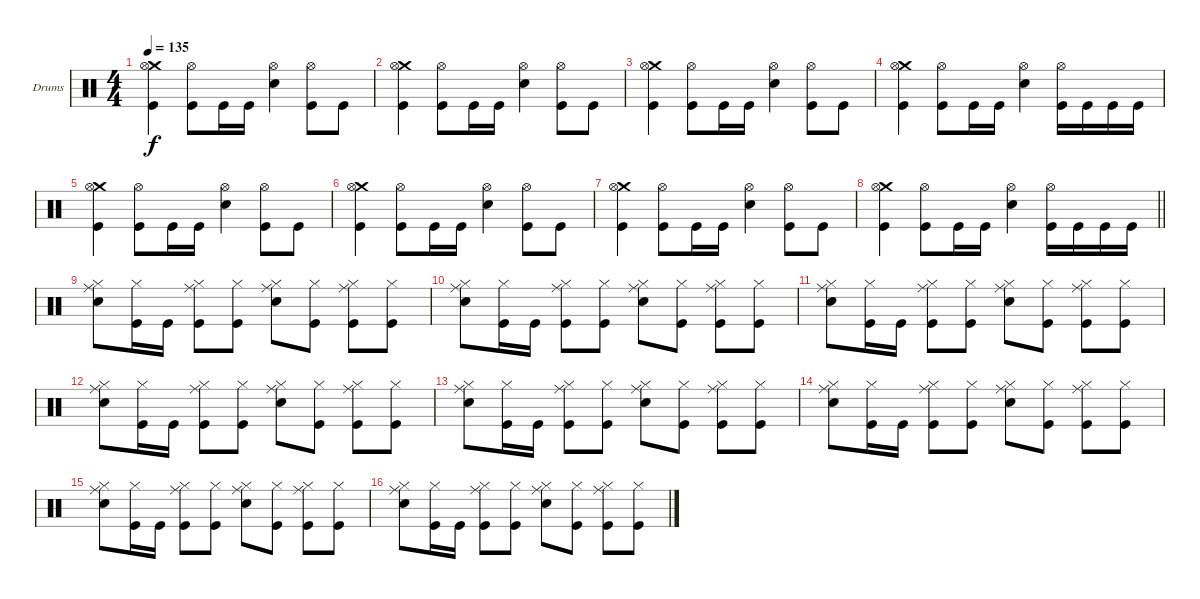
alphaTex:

\defaultSystemsLayout 4
\bracketExtendMode groupsimilarinstruments
\firstSystemTrackNameOrientation horizontal
\otherSystemsTrackNameOrientation horizontal
\track ("Drumkit" "Drums") {instrument percussion}
\staff {score}
\articulation defaults
\ts (4 4)
\tempo 135
\clef neutral
\ks c
("Kick (hit)" "Crash medium (hit)" "Hi-Hat (open)").4{dy f} ("Kick (hit)" "Hi-Hat (open)").8 "Kick (hit)".16 "Kick (hit)".16 ("Snare (hit) 2" "Hi-Hat (open)").4 ("Kick (hit)" "Hi-Hat (open)").8 "Kick (hit)".8 |
("Kick (hit)" "Crash medium (hit)" "Hi-Hat (open)").4 ("Kick (hit)" "Hi-Hat (open)").8 "Kick (hit)".16 "Kick (hit)".16 ("Snare (hit) 2" "Hi-Hat (open)").4 ("Kick (hit)" "Hi-Hat (open)").8 "Kick (hit)".8 |
("Kick (hit)" "Crash medium (hit)" "Hi-Hat (open)").4 ("Kick (hit)" "Hi-Hat (open)").8 "Kick (hit)".16 "Kick (hit)".16 ("Snare (hit) 2" "Hi-Hat (open)").4 ("Kick (hit)" "Hi-Hat (open)").8 "Kick (hit)".8 |
("Kick (hit)" "Crash medium (hit)" "Hi-Hat (open)").4 ("Kick (hit)" "Hi-Hat (open)").8 "Kick (hit)".16 "Kick (hit)".16 ("Snare (hit) 2" "Hi-Hat (open)").4 ("Kick (hit)" "Hi-Hat (open)").16 "Kick (hit)".16 "Kick (hit)".16 "Kick (hit)".16 |
("Kick (hit)" "Crash medium (hit)" "Hi-Hat (open)").4 ("Kick (hit)" "Hi-Hat (open)").8 "Kick (hit)".16 "Kick (hit)".16 ("Snare (hit) 2" "Hi-Hat (open)").4 ("Kick (hit)" "Hi-Hat (open)").8 "Kick (hit)".8 |
("Kick (hit)" "Crash medium (hit)" "Hi-Hat (open)").4 ("Kick (hit)" "Hi-Hat (open)").8 "Kick (hit)".16 "Kick (hit)".16 ("Snare (hit) 2" "Hi-Hat (open)").4 ("Kick (hit)" "Hi-Hat (open)").8 "Kick (hit)".8 |
("Kick (hit)" "Crash medium (hit)" "Hi-Hat (open)").4 ("Kick (hit)" "Hi-Hat (open)").8 "Kick (hit)".16 "Kick (hit)".16 ("Snare (hit) 2" "Hi-Hat (open)").4 ("Kick (hit)" "Hi-Hat (open)").8 "Kick (hit)".8 |
\barLineRight lightlight
("Kick (hit)" "Crash medium (hit)" "Hi-Hat (open)").4 ("Kick (hit)" "Hi-Hat (open)").8 "Kick (hit)".16 "Kick (hit)".16 ("Snare (hit) 2" "Hi-Hat (open)").4 ("Kick (hit)" "Hi-Hat (open)").16 "Kick (hit)".16 "Kick (hit)".16 "Kick (hit)".16 |
("Snare (hit) 2" "Hi-Hat (closed)" "Ride (middle)").8 ("Kick (hit)" "Hi-Hat (closed)").16 "Kick (hit)".16 ("Kick (hit)" "Hi-Hat (closed)" "Ride (middle)").8 ("Kick (hit)" "Hi-Hat (closed)").8 ("Snare (hit) 2" "Hi-Hat (closed)" "Ride (middle)").8 ("Kick (hit)" "Hi-Hat (closed)").8 ("Kick (hit)" "Hi-Hat (closed)" "Ride (middle)").8 ("Kick (hit)" "Hi-Hat (closed)").8 |
("Snare (hit) 2" "Hi-Hat (closed)" "Ride (middle)").8 ("Kick (hit)" "Hi-Hat (closed)").16 "Kick (hit)".16 ("Kick (hit)" "Hi-Hat (closed)" "Ride (middle)").8 ("Kick (hit)" "Hi-Hat (closed)").8 ("Snare (hit) 2" "Hi-Hat (closed)" "Ride (middle)").8 ("Kick (hit)" "Hi-Hat (closed)").8 ("Kick (hit)" "Hi-Hat (closed)" "Ride (middle)").8 ("Kick (hit)" "Hi-Hat (closed)").8 |
("Snare (hit) 2" "Hi-Hat (closed)" "Ride (middle)").8 ("Kick (hit)" "Hi-Hat (closed)").16 "Kick (hit)".16 ("Kick (hit)" "Hi-Hat (closed)" "Ride (middle)").8 ("Kick (hit)" "Hi-Hat (closed)").8 ("Snare (hit) 2" "Hi-Hat (closed)" "Ride (middle)").8 ("Kick (hit)" "Hi-Hat (closed)").8 ("Kick (hit)" "Hi-Hat (closed)" "Ride (middle)").8 ("Kick (hit)" "Hi-Hat (closed)").8 |
("Snare (hit) 2" "Hi-Hat (closed)" "Ride (middle)").8 ("Kick (hit)" "Hi-Hat (closed)").16 "Kick (hit)".16 ("Kick (hit)" "Hi-Hat (closed)" "Ride (middle)").8 ("Kick (hit)" "Hi-Hat (closed)").8 ("Snare (hit) 2" "Hi-Hat (closed)" "Ride (middle)").8 ("Kick (hit)" "Hi-Hat (closed)").8 ("Kick (hit)" "Hi-Hat (closed)" "Ride (middle)").8 ("Kick (hit)" "Hi-Hat (closed)").8 |
("Snare (hit) 2" "Hi-Hat (closed)" "Ride (middle)").8 ("Kick (hit)" "Hi-Hat (closed)").16 "Kick (hit)".16 ("Kick (hit)" "Hi-Hat (closed)" "Ride (middle)").8 ("Kick (hit)" "Hi-Hat (closed)").8 ("Snare (hit) 2" "Hi-Hat (closed)" "Ride (middle)").8 ("Kick (hit)" "Hi-Hat (closed)").8 ("Kick (hit)" "Hi-Hat (closed)" "Ride (middle)").8 ("Kick (hit)" "Hi-Hat (closed)").8 |
("Snare (hit) 2" "Hi-Hat (closed)" "Ride (middle)").8 ("Kick (hit)" "Hi-Hat (closed)").16 "Kick (hit)".16 ("Kick (hit)" "Hi-Hat (closed)" "Ride (middle)").8 ("Kick (hit)" "Hi-Hat (closed)").8 ("Snare (hit) 2" "Hi-Hat (closed)" "Ride (middle)").8 ("Kick (hit)" "Hi-Hat (closed)").8 ("Kick (hit)" "Hi-Hat (closed)" "Ride (middle)").8 ("Kick (hit)" "Hi-Hat (closed)").8 |
("Snare (hit) 2" "Hi-Hat (closed)" "Ride (middle)").8 ("Kick (hit)" "Hi-Hat (closed)").16 "Kick (hit)".16 ("Kick (hit)" "Hi-Hat (closed)" "Ride (middle)").8 ("Kick (hit)" "Hi-Hat (closed)").8 ("Snare (hit) 2" "Hi-Hat (closed)" "Ride (middle)").8 ("Kick (hit)" "Hi-Hat (closed)").8 ("Kick (hit)" "Hi-Hat (closed)" "Ride (middle)").8 ("Kick (hit)" "Hi-Hat (closed)").8 |
("Snare (hit) 2" "Hi-Hat (closed)" "Ride (middle)").8 ("Kick (hit)" "Hi-Hat (closed)").16 "Kick (hit)".16 ("Kick (hit)" "Hi-Hat (closed)" "Ride (middle)").8 ("Kick (hit)" "Hi-Hat (closed)").8 ("Snare (hit) 2" "Hi-Hat (closed)" "Ride (middle)").8 ("Kick (hit)" "Hi-Hat (closed)").8 ("Kick (hit)" "Hi-Hat (closed)" "Ride (middle)").8 ("Kick (hit)" "Hi-Hat (closed)").8
